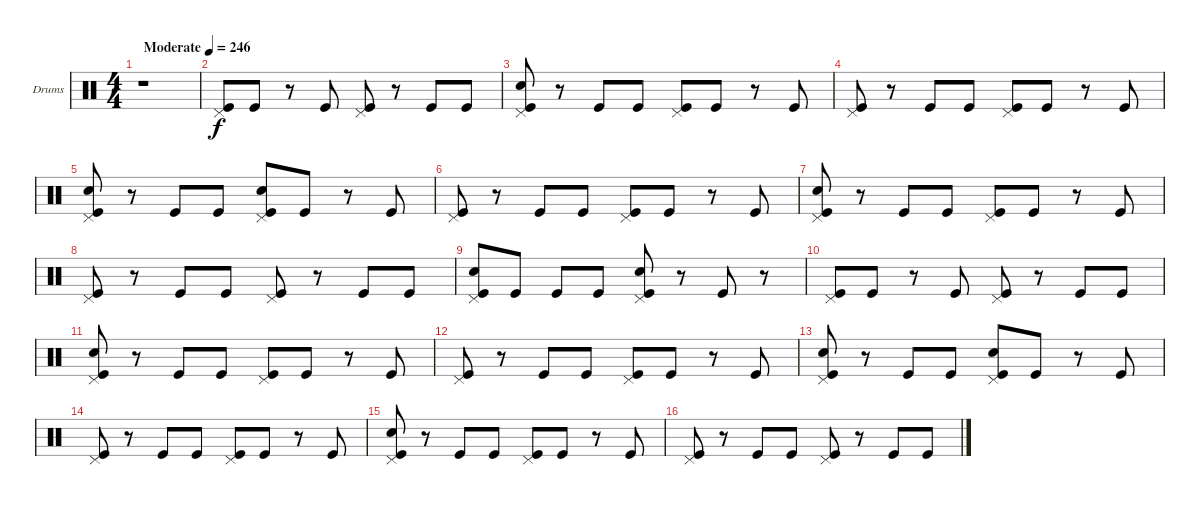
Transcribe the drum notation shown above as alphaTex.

\bracketExtendMode groupsimilarinstruments
\firstSystemTrackNameOrientation horizontal
\otherSystemsTrackNameOrientation horizontal
\track ("Drumkit" "Drums") {instrument percussion}
\staff {score}
\articulation defaults
\ts (4 4)
\beaming (8 2 2 2 2)
\tempo (246 "Moderate")
\clef neutral
\ks c
r.1{dy f} |
("Kick (hit)" "Pedal Hi-Hat (hit)").8 "Kick (hit)".8 r.8 "Kick (hit)".8 ("Pedal Hi-Hat (hit)" "Kick (hit)").8 r.8 "Kick (hit)".8 "Kick (hit)".8 |
("Kick (hit)" "Snare (hit) 2" "Pedal Hi-Hat (hit)").8 r.8 "Kick (hit)".8 "Kick (hit)".8 ("Pedal Hi-Hat (hit)" "Kick (hit)").8 "Kick (hit)".8 r.8 "Kick (hit)".8 |
("Kick (hit)" "Pedal Hi-Hat (hit)").8 r.8 "Kick (hit)".8 "Kick (hit)".8 ("Pedal Hi-Hat (hit)" "Kick (hit)").8 "Kick (hit)".8 r.8 "Kick (hit)".8 |
("Kick (hit)" "Snare (hit) 2" "Pedal Hi-Hat (hit)").8 r.8 "Kick (hit)".8 "Kick (hit)".8 ("Kick (hit)" "Pedal Hi-Hat (hit)" "Snare (hit) 2").8 "Kick (hit)".8 r.8 "Kick (hit)".8 |
("Pedal Hi-Hat (hit)" "Kick (hit)").8 r.8 "Kick (hit)".8 "Kick (hit)".8 ("Pedal Hi-Hat (hit)" "Kick (hit)").8 "Kick (hit)".8 r.8 "Kick (hit)".8 |
("Kick (hit)" "Snare (hit) 2" "Pedal Hi-Hat (hit)").8 r.8 "Kick (hit)".8 "Kick (hit)".8 ("Kick (hit)" "Pedal Hi-Hat (hit)").8 "Kick (hit)".8 r.8 "Kick (hit)".8 |
("Kick (hit)" "Pedal Hi-Hat (hit)").8 r.8 "Kick (hit)".8 "Kick (hit)".8 ("Pedal Hi-Hat (hit)" "Kick (hit)").8 r.8 "Kick (hit)".8 "Kick (hit)".8 |
("Pedal Hi-Hat (hit)" "Snare (hit) 2" "Kick (hit)").8 "Kick (hit)".8 "Kick (hit)".8 "Kick (hit)".8 ("Snare (hit) 2" "Pedal Hi-Hat (hit)" "Kick (hit)").8 r.8 "Kick (hit)".8 r.8 |
("Pedal Hi-Hat (hit)" "Kick (hit)").8 "Kick (hit)".8 r.8 "Kick (hit)".8 ("Kick (hit)" "Pedal Hi-Hat (hit)").8 r.8 "Kick (hit)".8 "Kick (hit)".8 |
("Kick (hit)" "Snare (hit) 2" "Pedal Hi-Hat (hit)").8 r.8 "Kick (hit)".8 "Kick (hit)".8 ("Kick (hit)" "Pedal Hi-Hat (hit)").8 "Kick (hit)".8 r.8 "Kick (hit)".8 |
("Pedal Hi-Hat (hit)" "Kick (hit)").8 r.8 "Kick (hit)".8 "Kick (hit)".8 ("Kick (hit)" "Pedal Hi-Hat (hit)").8 "Kick (hit)".8 r.8 "Kick (hit)".8 |
("Kick (hit)" "Snare (hit) 2" "Pedal Hi-Hat (hit)").8 r.8 "Kick (hit)".8 "Kick (hit)".8 ("Snare (hit) 2" "Pedal Hi-Hat (hit)" "Kick (hit)").8 "Kick (hit)".8 r.8 "Kick (hit)".8 |
("Kick (hit)" "Pedal Hi-Hat (hit)").8 r.8 "Kick (hit)".8 "Kick (hit)".8 ("Kick (hit)" "Pedal Hi-Hat (hit)").8 "Kick (hit)".8 r.8 "Kick (hit)".8 |
("Kick (hit)" "Snare (hit) 2" "Pedal Hi-Hat (hit)").8 r.8 "Kick (hit)".8 "Kick (hit)".8 ("Pedal Hi-Hat (hit)" "Kick (hit)").8 "Kick (hit)".8 r.8 "Kick (hit)".8 |
("Pedal Hi-Hat (hit)" "Kick (hit)").8 r.8 "Kick (hit)".8 "Kick (hit)".8 ("Kick (hit)" "Pedal Hi-Hat (hit)").8 r.8 "Kick (hit)".8 "Kick (hit)".8
